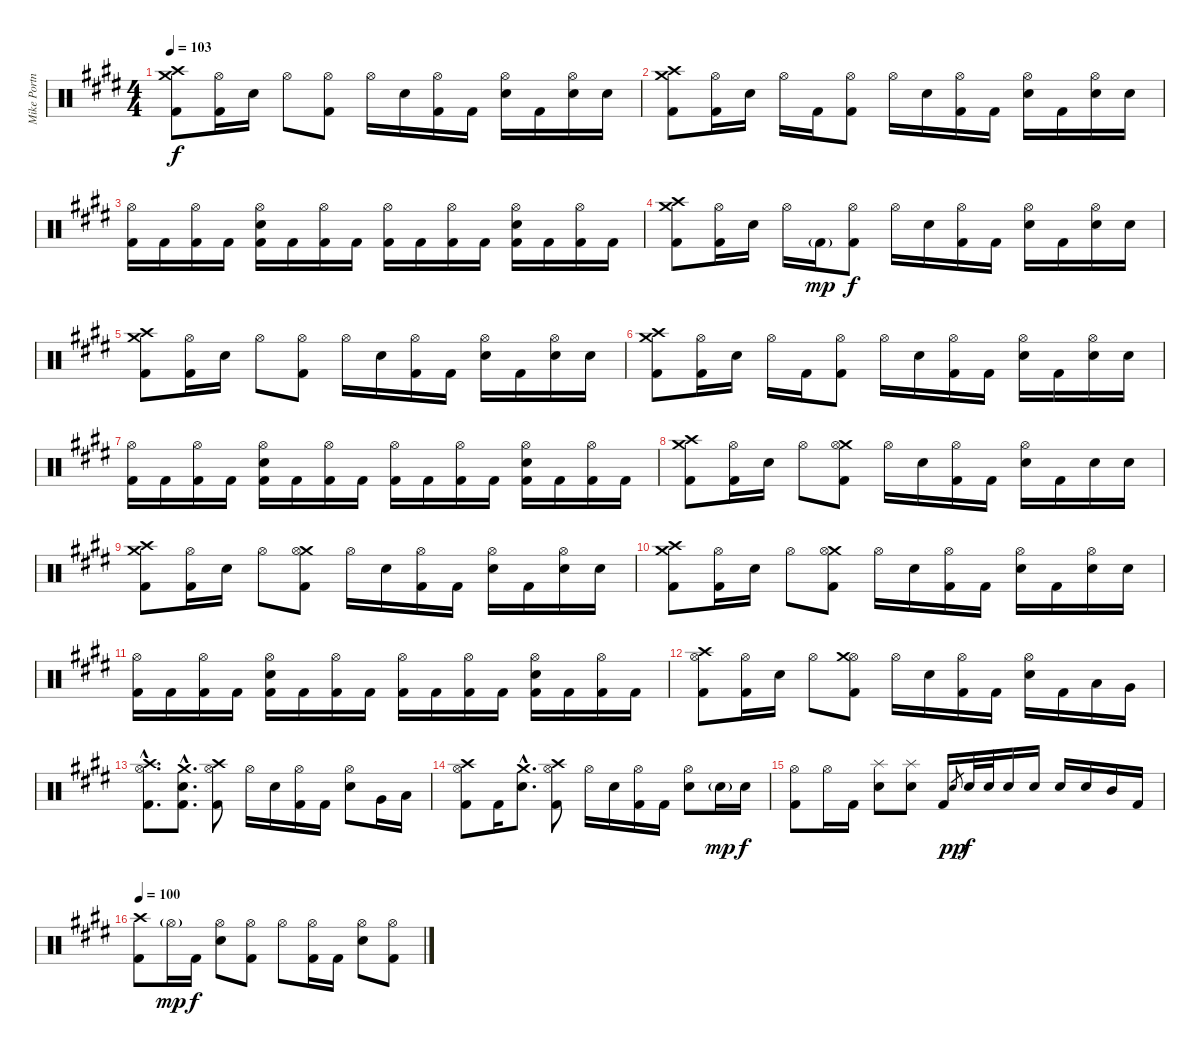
\track ("Mike Portnoy" "Mike Portn") {instrument percussion}
\staff {score}
\articulation defaults
\ts (4 4)
\tempo 103
\clef neutral
\ks e
("Crash high (hit)" "Crash medium (hit)" "Kick (hit) 2").8{dy f} ("Hi-Hat (open)" "Kick (hit) 2").16 "Snare (hit) 2".16 "Hi-Hat (open)".8 ("Hi-Hat (open)" "Kick (hit) 2").8 "Hi-Hat (open)".16 "Snare (hit) 2".16 ("Hi-Hat (open)" "Kick (hit) 2").16 "Kick (hit) 2".16 ("Hi-Hat (open)" "Snare (hit) 2").16 "Kick (hit) 2".16 ("Hi-Hat (open)" "Snare (hit) 2").16 "Snare (hit) 2".16 |
("Crash high (hit)" "Crash medium (hit)" "Kick (hit) 2").8 ("Hi-Hat (open)" "Kick (hit) 2").16 "Snare (hit) 2".16 "Hi-Hat (open)".16 "Kick (hit) 2".16 ("Hi-Hat (open)" "Kick (hit) 2").8 "Hi-Hat (open)".16 "Snare (hit) 2".16 ("Hi-Hat (open)" "Kick (hit) 2").16 "Kick (hit) 2".16 ("Hi-Hat (open)" "Snare (hit) 2").16 "Kick (hit) 2".16 ("Hi-Hat (open)" "Snare (hit) 2").16 "Snare (hit) 2".16 |
("Hi-Hat (open)" "Kick (hit) 2").16 "Kick (hit) 2".16 ("Hi-Hat (open)" "Kick (hit) 2").16 "Kick (hit) 2".16 ("Hi-Hat (open)" "Snare (hit) 2" "Kick (hit) 2").16 "Kick (hit) 2".16 ("Hi-Hat (open)" "Kick (hit) 2").16 "Kick (hit) 2".16 ("Hi-Hat (open)" "Kick (hit) 2").16 "Kick (hit) 2".16 ("Hi-Hat (open)" "Kick (hit) 2").16 "Kick (hit) 2".16 ("Hi-Hat (open)" "Snare (hit) 2" "Kick (hit) 2").16 "Kick (hit) 2".16 ("Hi-Hat (open)" "Kick (hit) 2").16 "Kick (hit) 2".16 |
("Crash high (hit)" "Crash medium (hit)" "Kick (hit) 2").8 ("Hi-Hat (open)" "Kick (hit) 2").16 "Snare (hit) 2".16 "Hi-Hat (open)".16 "Kick (hit) 2"{g}.16{dy mp} ("Hi-Hat (open)" "Kick (hit) 2").8{dy f} "Hi-Hat (open)".16 "Snare (hit) 2".16 ("Hi-Hat (open)" "Kick (hit) 2").16 "Kick (hit) 2".16 ("Hi-Hat (open)" "Snare (hit) 2").16 "Kick (hit) 2".16 ("Hi-Hat (open)" "Snare (hit) 2").16 "Snare (hit) 2".16 |
("Crash high (hit)" "Crash medium (hit)" "Kick (hit) 2").8 ("Hi-Hat (open)" "Kick (hit) 2").16 "Snare (hit) 2".16 "Hi-Hat (open)".8 ("Hi-Hat (open)" "Kick (hit) 2").8 "Hi-Hat (open)".16 "Snare (hit) 2".16 ("Hi-Hat (open)" "Kick (hit) 2").16 "Kick (hit) 2".16 ("Hi-Hat (open)" "Snare (hit) 2").16 "Kick (hit) 2".16 ("Hi-Hat (open)" "Snare (hit) 2").16 "Snare (hit) 2".16 |
("Crash high (hit)" "Crash medium (hit)" "Kick (hit) 2").8 ("Hi-Hat (open)" "Kick (hit) 2").16 "Snare (hit) 2".16 "Hi-Hat (open)".16 "Kick (hit) 2".16 ("Hi-Hat (open)" "Kick (hit) 2").8 "Hi-Hat (open)".16 "Snare (hit) 2".16 ("Hi-Hat (open)" "Kick (hit) 2").16 "Kick (hit) 2".16 ("Hi-Hat (open)" "Snare (hit) 2").16 "Kick (hit) 2".16 ("Hi-Hat (open)" "Snare (hit) 2").16 "Snare (hit) 2".16 |
("Hi-Hat (open)" "Kick (hit) 2").16 "Kick (hit) 2".16 ("Hi-Hat (open)" "Kick (hit) 2").16 "Kick (hit) 2".16 ("Hi-Hat (open)" "Snare (hit) 2" "Kick (hit) 2").16 "Kick (hit) 2".16 ("Hi-Hat (open)" "Kick (hit) 2").16 "Kick (hit) 2".16 ("Hi-Hat (open)" "Kick (hit) 2").16 "Kick (hit) 2".16 ("Hi-Hat (open)" "Kick (hit) 2").16 "Kick (hit) 2".16 ("Hi-Hat (open)" "Snare (hit) 2" "Kick (hit) 2").16 "Kick (hit) 2".16 ("Hi-Hat (open)" "Kick (hit) 2").16 "Kick (hit) 2".16 |
("Crash high (hit)" "Crash medium (hit)" "Kick (hit) 2").8 ("Hi-Hat (open)" "Kick (hit) 2").16 "Snare (hit) 2".16 "Hi-Hat (open)".8 ("Crash medium (hit)" "Hi-Hat (open)" "Kick (hit) 2").8 "Hi-Hat (open)".16 "Snare (hit) 2".16 ("Hi-Hat (open)" "Kick (hit) 2").16 "Kick (hit) 2".16 ("Hi-Hat (open)" "Snare (hit) 2").16 "Kick (hit) 2".16 "Snare (hit) 2".16 "Snare (hit) 2".16 |
("Crash high (hit)" "Crash medium (hit)" "Kick (hit) 2").8 ("Hi-Hat (open)" "Kick (hit) 2").16 "Snare (hit) 2".16 "Hi-Hat (open)".8 ("Crash medium (hit)" "Hi-Hat (open)" "Kick (hit) 2").8 "Hi-Hat (open)".16 "Snare (hit) 2".16 ("Hi-Hat (open)" "Kick (hit) 2").16 "Kick (hit) 2".16 ("Hi-Hat (open)" "Snare (hit) 2").16 "Kick (hit) 2".16 ("Hi-Hat (open)" "Snare (hit) 2").16 "Snare (hit) 2".16 |
("Crash high (hit)" "Crash medium (hit)" "Kick (hit) 2").8 ("Hi-Hat (open)" "Kick (hit) 2").16 "Snare (hit) 2".16 "Hi-Hat (open)".8 ("Crash medium (hit)" "Hi-Hat (open)" "Kick (hit) 2").8 "Hi-Hat (open)".16 "Snare (hit) 2".16 ("Hi-Hat (open)" "Kick (hit) 2").16 "Kick (hit) 2".16 ("Hi-Hat (open)" "Snare (hit) 2").16 "Kick (hit) 2".16 ("Hi-Hat (open)" "Snare (hit) 2").16 "Snare (hit) 2".16 |
("Hi-Hat (open)" "Kick (hit) 2").16 "Kick (hit) 2".16 ("Hi-Hat (open)" "Kick (hit) 2").16 "Kick (hit) 2".16 ("Hi-Hat (open)" "Snare (hit) 2" "Kick (hit) 2").16 "Kick (hit) 2".16 ("Hi-Hat (open)" "Kick (hit) 2").16 "Kick (hit) 2".16 ("Hi-Hat (open)" "Kick (hit) 2").16 "Kick (hit) 2".16 ("Hi-Hat (open)" "Kick (hit) 2").16 "Kick (hit) 2".16 ("Hi-Hat (open)" "Snare (hit) 2" "Kick (hit) 2").16 "Kick (hit) 2".16 ("Hi-Hat (open)" "Kick (hit) 2").16 "Kick (hit) 2".16 |
("Hi-Hat (open)" "Crash high (hit)" "Kick (hit) 2").8 ("Hi-Hat (open)" "Kick (hit) 2").16 "Snare (hit) 2".16 "Hi-Hat (open)".8 ("Hi-Hat (open)" "Crash medium (hit)" "Kick (hit) 2").8 "Hi-Hat (open)".16 "Snare (hit) 2".16 ("Hi-Hat (open)" "Kick (hit) 2").16 "Kick (hit) 2".16 ("Hi-Hat (open)" "Snare (hit) 2").16 "Kick (hit) 2".16 "Low Tom (hit)".16 "Very Low Tom (hit)".16 |
("Crash high (hit)"{hac} "Hi-Hat (open)"{hac} "Kick (hit) 2"{hac}).8{d} ("Crash medium (hit)"{hac} "Snare (hit) 2"{hac} "Kick (hit) 2"{hac}).8{d} ("Crash high (hit)" "Hi-Hat (open)" "Kick (hit) 2").8 "Hi-Hat (open)".16 "Snare (hit) 2".16 ("Hi-Hat (open)" "Kick (hit) 2").16 "Kick (hit) 2".16 ("Hi-Hat (open)" "Snare (hit) 2").8 "Very Low Tom (hit)".16 "Low Floor Tom (hit)".16 |
("Hi-Hat (open)" "Crash high (hit)" "Kick (hit) 2").8 "Kick (hit) 2".16 ("Crash medium (hit)"{hac} "Snare (hit) 2"{hac}).8{d} ("Hi-Hat (open)" "Crash high (hit)" "Kick (hit) 2").8 "Hi-Hat (open)".16 "Snare (hit) 2".16 ("Hi-Hat (open)" "Kick (hit) 2").16 "Kick (hit) 2".16 ("Hi-Hat (open)" "Snare (hit) 2").8 "Snare (hit) 2"{g}.16{dy mp} "Snare (hit) 2".16{dy f} |
("Hi-Hat (open)" "Kick (hit) 2").8 "Hi-Hat (open)".16 "Kick (hit) 2".16 ("Splash (hit)" "Snare (hit) 2").8 ("Splash (hit)" "Snare (hit) 2").8 "Kick (hit) 2".16 "Snare (hit) 2".8{gr dy pp} "Snare (hit) 2".32{dy f} "Snare (hit) 2".32 "Snare (hit) 2".16 "Snare (hit) 2".16 "Snare (hit) 2".16 "Snare (hit) 2".16 "Mid Tom (hit)".16 "Kick (hit) 2".16 |
\tempo 100
("Crash high (hit)" "Kick (hit) 2").8 "Hi-Hat (open)"{g}.16{dy mp} "Kick (hit) 2".16{dy f} ("Hi-Hat (open)" "Snare (hit) 2").8 ("Hi-Hat (open)" "Kick (hit) 2").8 "Hi-Hat (open)".8 ("Hi-Hat (open)" "Kick (hit) 2").16 "Kick (hit) 2".16 ("Hi-Hat (open)" "Snare (hit) 2").8 ("Hi-Hat (open)" "Kick (hit) 2").8
